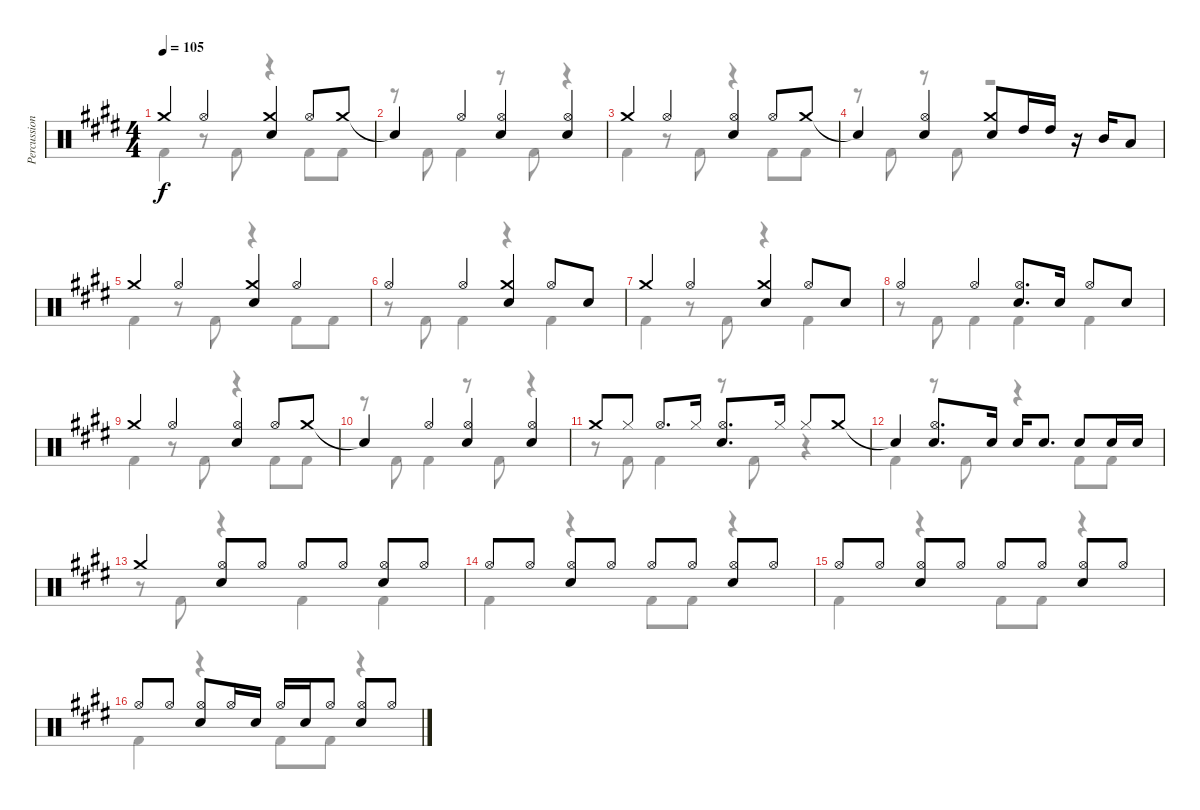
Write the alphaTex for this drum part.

\track ("Percussion" "Percussion") {instrument percussion}
\staff {score}
\articulation defaults
\voice
\ts (4 4)
\tempo 105
\clef neutral
\ks e "Crash medium (hit)".4{dy f} "Hi-Hat (open)".4
("Crash medium (hit)" "Snare (hit) 2").4 "Hi-Hat (open)".8 "Crash medium (hit)".8 |
"Snare (hit)"{t}.4 "Hi-Hat (open)".4 ("Hi-Hat (open)" "Snare (hit) 2").4 ("Hi-Hat (open)" "Snare (hit) 2").4 |
"Crash medium (hit)".4 "Hi-Hat (open)".4 ("Hi-Hat (open)" "Snare (hit) 2").4 "Hi-Hat (open)".8 "Crash medium (hit)".8 |
"Snare (hit)"{t}.4 ("Hi-Hat (open)" "Snare (hit) 2").4 ("Crash medium (hit)" "Snare (hit) 2").8 "High Tom (hit)".16 "High Tom (hit)".16 r.16 "Mid Tom (hit)".16 "Low Tom (hit)".8 |
"Crash medium (hit)".4 "Hi-Hat (open)".4 ("Crash medium (hit)" "Snare (hit) 2").4 "Hi-Hat (open)".4 |
"Hi-Hat (open)".4 "Hi-Hat (open)".4 ("Crash medium (hit)" "Snare (hit) 2").4 "Hi-Hat (open)".8 "Snare (hit) 2".8 |
"Crash medium (hit)".4 "Hi-Hat (open)".4 ("Crash medium (hit)" "Snare (hit) 2").4 "Hi-Hat (open)".8 "Snare (hit) 2".8 |
"Hi-Hat (open)".4 "Hi-Hat (open)".4 ("Hi-Hat (open)" "Snare (hit) 2").8{d} "Snare (hit) 2".16 "Hi-Hat (open)".8 "Snare (hit) 2".8 |
"Crash medium (hit)".4 "Hi-Hat (open)".4 ("Hi-Hat (open)" "Snare (hit) 2").4 "Hi-Hat (open)".8 "Crash medium (hit)".8 |
"Snare (hit)"{t}.4 "Hi-Hat (open)".4 ("Hi-Hat (open)" "Snare (hit) 2").4 ("Hi-Hat (open)" "Snare (hit) 2").4 |
"Crash medium (hit)".8 "Hi-Hat (closed)".8 "Hi-Hat (open)".8{d} "Hi-Hat (closed)".16 ("Hi-Hat (open)" "Snare (hit) 2").8{d} "Hi-Hat (closed)".16 "Hi-Hat (closed)".8 "Crash medium (hit)".8 |
"Snare (hit)"{t}.4 ("Hi-Hat (open)" "Snare (hit) 2").8{d} "Snare (hit) 2".16 "Snare (hit) 2".16 "Snare (hit) 2".8{d} "Snare (hit) 2".8 "Snare (hit) 2".16 "Snare (hit) 2".16 |
"Crash medium (hit)".4 ("Hi-Hat (open)" "Snare (hit) 2").8 "Hi-Hat (open)".8 "Hi-Hat (open)".8 "Hi-Hat (open)".8 ("Hi-Hat (open)" "Snare (hit) 2").8 "Hi-Hat (open)".8 |
"Hi-Hat (open)".8 "Hi-Hat (open)".8 ("Hi-Hat (open)" "Snare (hit) 2").8 "Hi-Hat (open)".8 "Hi-Hat (open)".8 "Hi-Hat (open)".8 ("Hi-Hat (open)" "Snare (hit) 2").8 "Hi-Hat (open)".8 |
"Hi-Hat (open)".8 "Hi-Hat (open)".8 ("Hi-Hat (open)" "Snare (hit) 2").8 "Hi-Hat (open)".8 "Hi-Hat (open)".8 "Hi-Hat (open)".8 ("Hi-Hat (open)" "Snare (hit) 2").8 "Hi-Hat (open)".8 |
"Hi-Hat (open)".8 "Hi-Hat (open)".8 ("Hi-Hat (open)" "Snare (hit) 2").8 "Hi-Hat (open)".16 "Snare (hit) 2".16 "Hi-Hat (open)".16 "Snare (hit) 2".16 "Hi-Hat (open)".8 ("Hi-Hat (open)" "Snare (hit) 2").8 "Hi-Hat (open)".8
\voice
\clef neutral
\ottava regular
\simile none
\ks e "Kick (hit) 2".4{dy f}
r.8 "Kick (hit) 2".8 r.4 "Kick (hit) 2".8 "Kick (hit) 2".8 |
r.8 "Kick (hit) 2".8 "Kick (hit) 2".4 r.8 "Kick (hit) 2".8 r.4 |
"Kick (hit) 2".4 r.8 "Kick (hit) 2".8 r.4 "Kick (hit) 2".8 "Kick (hit) 2".8 |
r.8 "Kick (hit) 2".8 r.8 "Kick (hit) 2".8 r.2 |
"Kick (hit) 2".4 r.8 "Kick (hit) 2".8 r.4 "Kick (hit) 2".8 "Kick (hit) 2".8 |
r.8 "Kick (hit) 2".8 "Kick (hit) 2".4 r.4 "Kick (hit) 2".4 |
"Kick (hit) 2".4 r.8 "Kick (hit) 2".8 r.4 "Kick (hit) 2".4 |
r.8 "Kick (hit) 2".8 "Kick (hit) 2".4 "Kick (hit) 2".4 "Kick (hit) 2".4 |
"Kick (hit) 2".4 r.8 "Kick (hit) 2".8 r.4 "Kick (hit) 2".8 "Kick (hit) 2".8 |
r.8 "Kick (hit) 2".8 "Kick (hit) 2".4 r.8 "Kick (hit) 2".8 r.4 |
r.8 "Kick (hit) 2".8 "Kick (hit) 2".4 r.8 "Kick (hit) 2".8 r.4 |
"Kick (hit) 2".4 r.8 "Kick (hit) 2".8 r.4 "Kick (hit) 2".8 "Kick (hit) 2".8 |
r.8 "Kick (hit) 2".8 r.4 "Kick (hit) 2".4 "Kick (hit) 2".4 |
"Kick (hit) 2".4 r.4 "Kick (hit) 2".8 "Kick (hit) 2".8 r.4 |
"Kick (hit) 2".4 r.4 "Kick (hit) 2".8 "Kick (hit) 2".8 r.4 |
"Kick (hit) 2".4 r.4 "Kick (hit) 2".8 "Kick (hit) 2".8 r.4
